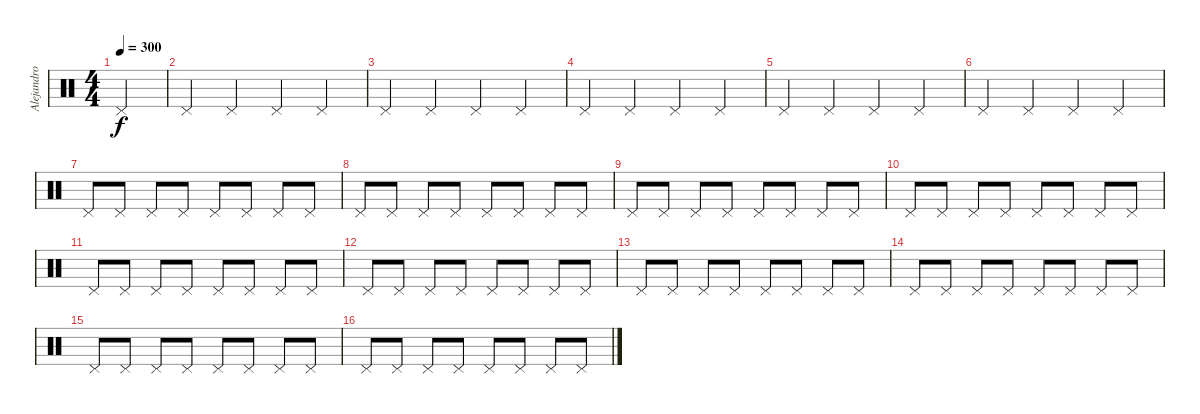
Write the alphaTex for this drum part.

\track ("Alejandro" "Alejandro") {instrument percussion}
\staff {score}
\articulation defaults
\ts (4 4)
\tempo 300
\clef neutral
\ks c "Pedal Hi-Hat (hit)".4{dy f}
|
"Pedal Hi-Hat (hit)".4 "Pedal Hi-Hat (hit)".4 "Pedal Hi-Hat (hit)".4 "Pedal Hi-Hat (hit)".4 |
"Pedal Hi-Hat (hit)".4 "Pedal Hi-Hat (hit)".4 "Pedal Hi-Hat (hit)".4 "Pedal Hi-Hat (hit)".4 |
"Pedal Hi-Hat (hit)".4 "Pedal Hi-Hat (hit)".4 "Pedal Hi-Hat (hit)".4 "Pedal Hi-Hat (hit)".4 |
"Pedal Hi-Hat (hit)".4 "Pedal Hi-Hat (hit)".4 "Pedal Hi-Hat (hit)".4 "Pedal Hi-Hat (hit)".4 |
"Pedal Hi-Hat (hit)".4 "Pedal Hi-Hat (hit)".4 "Pedal Hi-Hat (hit)".4 "Pedal Hi-Hat (hit)".4 |
"Pedal Hi-Hat (hit)".8 "Pedal Hi-Hat (hit)".8 "Pedal Hi-Hat (hit)".8 "Pedal Hi-Hat (hit)".8 "Pedal Hi-Hat (hit)".8 "Pedal Hi-Hat (hit)".8 "Pedal Hi-Hat (hit)".8 "Pedal Hi-Hat (hit)".8 |
"Pedal Hi-Hat (hit)".8 "Pedal Hi-Hat (hit)".8 "Pedal Hi-Hat (hit)".8 "Pedal Hi-Hat (hit)".8 "Pedal Hi-Hat (hit)".8 "Pedal Hi-Hat (hit)".8 "Pedal Hi-Hat (hit)".8 "Pedal Hi-Hat (hit)".8 |
"Pedal Hi-Hat (hit)".8 "Pedal Hi-Hat (hit)".8 "Pedal Hi-Hat (hit)".8 "Pedal Hi-Hat (hit)".8 "Pedal Hi-Hat (hit)".8 "Pedal Hi-Hat (hit)".8 "Pedal Hi-Hat (hit)".8 "Pedal Hi-Hat (hit)".8 |
"Pedal Hi-Hat (hit)".8 "Pedal Hi-Hat (hit)".8 "Pedal Hi-Hat (hit)".8 "Pedal Hi-Hat (hit)".8 "Pedal Hi-Hat (hit)".8 "Pedal Hi-Hat (hit)".8 "Pedal Hi-Hat (hit)".8 "Pedal Hi-Hat (hit)".8 |
"Pedal Hi-Hat (hit)".8 "Pedal Hi-Hat (hit)".8 "Pedal Hi-Hat (hit)".8 "Pedal Hi-Hat (hit)".8 "Pedal Hi-Hat (hit)".8 "Pedal Hi-Hat (hit)".8 "Pedal Hi-Hat (hit)".8 "Pedal Hi-Hat (hit)".8 |
"Pedal Hi-Hat (hit)".8 "Pedal Hi-Hat (hit)".8 "Pedal Hi-Hat (hit)".8 "Pedal Hi-Hat (hit)".8 "Pedal Hi-Hat (hit)".8 "Pedal Hi-Hat (hit)".8 "Pedal Hi-Hat (hit)".8 "Pedal Hi-Hat (hit)".8 |
"Pedal Hi-Hat (hit)".8 "Pedal Hi-Hat (hit)".8 "Pedal Hi-Hat (hit)".8 "Pedal Hi-Hat (hit)".8 "Pedal Hi-Hat (hit)".8 "Pedal Hi-Hat (hit)".8 "Pedal Hi-Hat (hit)".8 "Pedal Hi-Hat (hit)".8 |
"Pedal Hi-Hat (hit)".8 "Pedal Hi-Hat (hit)".8 "Pedal Hi-Hat (hit)".8 "Pedal Hi-Hat (hit)".8 "Pedal Hi-Hat (hit)".8 "Pedal Hi-Hat (hit)".8 "Pedal Hi-Hat (hit)".8 "Pedal Hi-Hat (hit)".8 |
"Pedal Hi-Hat (hit)".8 "Pedal Hi-Hat (hit)".8 "Pedal Hi-Hat (hit)".8 "Pedal Hi-Hat (hit)".8 "Pedal Hi-Hat (hit)".8 "Pedal Hi-Hat (hit)".8 "Pedal Hi-Hat (hit)".8 "Pedal Hi-Hat (hit)".8 |
"Pedal Hi-Hat (hit)".8 "Pedal Hi-Hat (hit)".8 "Pedal Hi-Hat (hit)".8 "Pedal Hi-Hat (hit)".8 "Pedal Hi-Hat (hit)".8 "Pedal Hi-Hat (hit)".8 "Pedal Hi-Hat (hit)".8 "Pedal Hi-Hat (hit)".8
